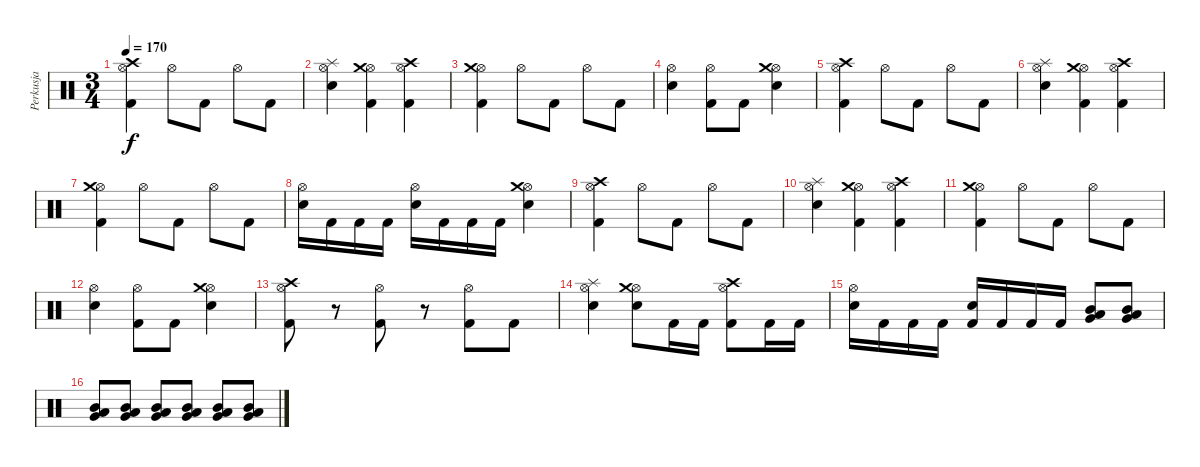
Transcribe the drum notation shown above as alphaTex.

\track ("Perkusja" "Perkusja") {instrument percussion}
\staff {score}
\articulation defaults
\ts (3 4)
\tempo 170
\clef neutral
\ks c
("Hi-Hat (open)" "Kick (hit) 2" "Crash high (hit)").4{dy f} "Hi-Hat (open)".8 "Kick (hit) 2".8 "Hi-Hat (open)".8 "Kick (hit) 2".8 |
("Hi-Hat (open)" "Snare (hit) 2" "Splash (hit)").4 ("Hi-Hat (open)" "Kick (hit) 2" "Crash medium (hit)").4 ("Hi-Hat (open)" "Kick (hit) 2" "Crash high (hit)").4 |
("Hi-Hat (open)" "Kick (hit) 2" "Crash medium (hit)").4 "Hi-Hat (open)".8 "Kick (hit) 2".8 "Hi-Hat (open)".8 "Kick (hit) 2".8 |
("Hi-Hat (open)" "Snare (hit) 2").4 ("Hi-Hat (open)" "Kick (hit) 2").8 "Kick (hit) 2".8 ("Hi-Hat (open)" "Snare (hit) 2" "Crash medium (hit)").4 |
("Hi-Hat (open)" "Kick (hit) 2" "Crash high (hit)").4 "Hi-Hat (open)".8 "Kick (hit) 2".8 "Hi-Hat (open)".8 "Kick (hit) 2".8 |
("Hi-Hat (open)" "Snare (hit) 2" "Splash (hit)").4 ("Hi-Hat (open)" "Kick (hit) 2" "Crash medium (hit)").4 ("Hi-Hat (open)" "Kick (hit) 2" "Crash high (hit)").4 |
("Hi-Hat (open)" "Kick (hit) 2" "Crash medium (hit)").4 "Hi-Hat (open)".8 "Kick (hit) 2".8 "Hi-Hat (open)".8 "Kick (hit) 2".8 |
("Hi-Hat (open)" "Snare (hit) 2").16 "Kick (hit) 2".16 "Kick (hit) 2".16 "Kick (hit) 2".16 ("Hi-Hat (open)" "Snare (hit) 2").16 "Kick (hit) 2".16 "Kick (hit) 2".16 "Kick (hit) 2".16 ("Hi-Hat (open)" "Snare (hit) 2" "Crash medium (hit)").4 |
("Hi-Hat (open)" "Kick (hit) 2" "Crash high (hit)").4 "Hi-Hat (open)".8 "Kick (hit) 2".8 "Hi-Hat (open)".8 "Kick (hit) 2".8 |
("Hi-Hat (open)" "Snare (hit) 2" "Splash (hit)").4 ("Hi-Hat (open)" "Kick (hit) 2" "Crash medium (hit)").4 ("Hi-Hat (open)" "Kick (hit) 2" "Crash high (hit)").4 |
("Hi-Hat (open)" "Kick (hit) 2" "Crash medium (hit)").4 "Hi-Hat (open)".8 "Kick (hit) 2".8 "Hi-Hat (open)".8 "Kick (hit) 2".8 |
("Hi-Hat (open)" "Snare (hit) 2").4 ("Hi-Hat (open)" "Kick (hit) 2").8 "Kick (hit) 2".8 ("Hi-Hat (open)" "Snare (hit) 2" "Crash medium (hit)").4 |
("Hi-Hat (open)" "Kick (hit) 2" "Crash high (hit)").8 r.8 ("Hi-Hat (open)" "Kick (hit) 2").8 r.8 ("Hi-Hat (open)" "Kick (hit) 2").8 "Kick (hit) 2".8 |
("Hi-Hat (open)" "Snare (hit) 2" "Splash (hit)").4 ("Hi-Hat (open)" "Snare (hit) 2" "Crash medium (hit)").8 "Kick (hit) 2".16 "Kick (hit) 2".16 ("Hi-Hat (open)" "Kick (hit) 2" "Crash high (hit)").8 "Kick (hit) 2".16 "Kick (hit) 2".16 |
("Hi-Hat (open)" "Snare (hit) 2").16 "Kick (hit) 2".16 "Kick (hit) 2".16 "Kick (hit) 2".16 ("Snare (hit) 2" "Kick (hit) 2").16 "Kick (hit) 2".16 "Kick (hit) 2".16 "Kick (hit) 2".16 ("Low Tom (hit)" "Mid Tom (hit)" "Very Low Tom (hit)").8 ("Low Tom (hit)" "Mid Tom (hit)" "Very Low Tom (hit)").8 |
("Low Tom (hit)" "Mid Tom (hit)" "Very Low Tom (hit)").8 ("Low Tom (hit)" "Mid Tom (hit)" "Very Low Tom (hit)").8 ("Low Tom (hit)" "Mid Tom (hit)" "Very Low Tom (hit)").8 ("Low Tom (hit)" "Mid Tom (hit)" "Very Low Tom (hit)").8 ("Low Tom (hit)" "Mid Tom (hit)" "Very Low Tom (hit)").8 ("Low Tom (hit)" "Mid Tom (hit)" "Very Low Tom (hit)").8
